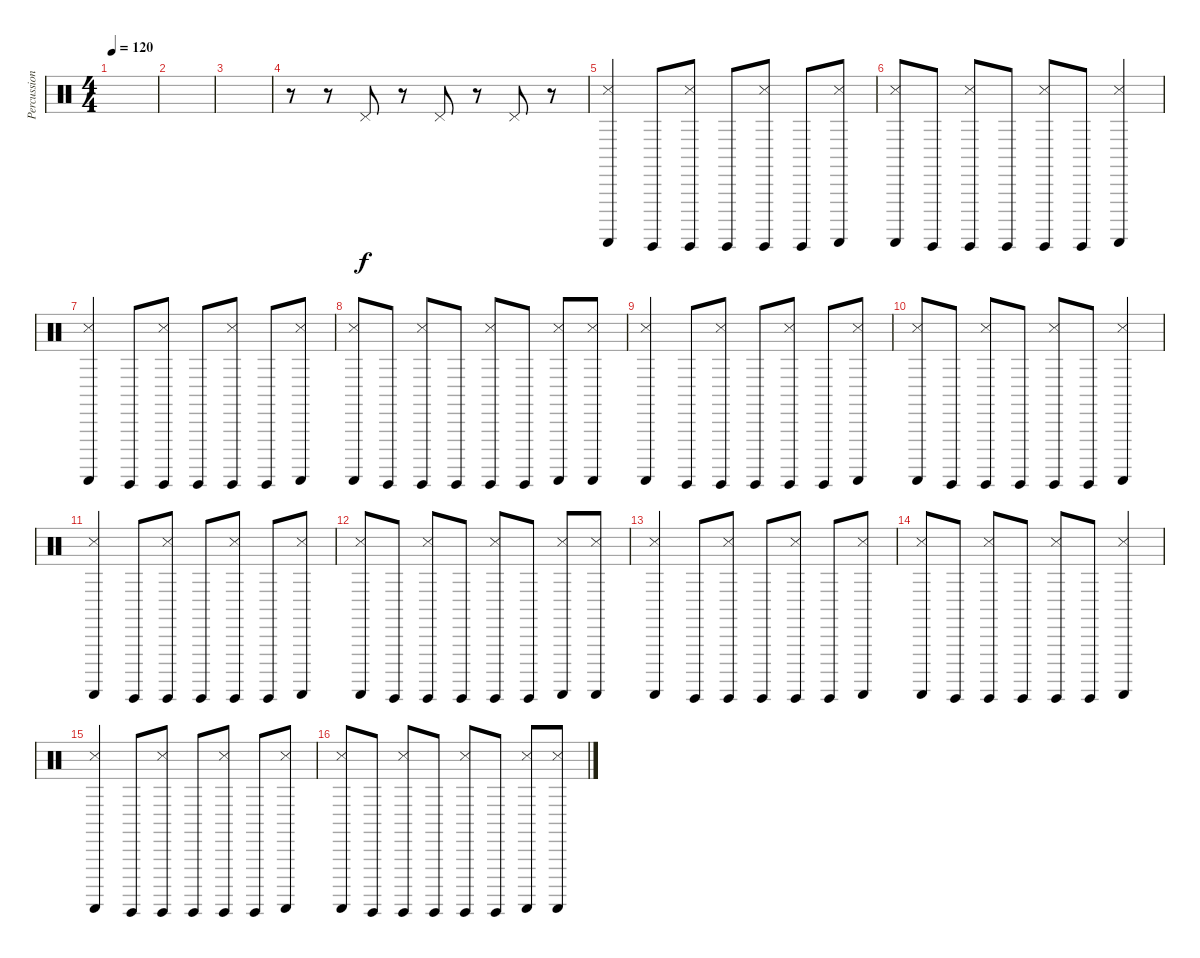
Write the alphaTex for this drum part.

\track ("Percussions" "Percussion") {instrument percussion}
\staff {score}
\articulation defaults
\ts (4 4)
\tempo 120
\clef neutral
\ks c
|
|
|
r.8 r.8 "Pedal Hi-Hat (hit)".8 r.8 "Pedal Hi-Hat (hit)".8 r.8 "Pedal Hi-Hat (hit)".8 r.8 |
("Guiro (scrap-return)" "Snare (side stick) 3").4{dy f} "Guiro (hit)".8 ("Guiro (hit)" "Snare (side stick) 3").8 "Guiro (hit)".8 ("Guiro (hit)" "Snare (side stick) 3").8 "Guiro (hit)".8 ("Guiro (scrap-return)" "Snare (side stick) 3").8 |
("Guiro (scrap-return)" "Snare (side stick) 3").8 "Guiro (hit)".8 ("Guiro (hit)" "Snare (side stick) 3").8 "Guiro (hit)".8 ("Guiro (hit)" "Snare (side stick) 3").8 "Guiro (hit)".8 ("Guiro (scrap-return)" "Snare (side stick) 3").4 |
("Guiro (scrap-return)" "Snare (side stick) 3").4 "Guiro (hit)".8 ("Guiro (hit)" "Snare (side stick) 3").8 "Guiro (hit)".8 ("Guiro (hit)" "Snare (side stick) 3").8 "Guiro (hit)".8 ("Guiro (scrap-return)" "Snare (side stick) 3").8 |
("Guiro (scrap-return)" "Snare (side stick) 3").8 "Guiro (hit)".8 ("Guiro (hit)" "Snare (side stick) 3").8 "Guiro (hit)".8 ("Guiro (hit)" "Snare (side stick) 3").8 "Guiro (hit)".8 ("Guiro (scrap-return)" "Snare (side stick) 3").8 ("Guiro (scrap-return)" "Snare (side stick) 3").8 |
("Guiro (scrap-return)" "Snare (side stick) 3").4 "Guiro (hit)".8 ("Guiro (hit)" "Snare (side stick) 3").8 "Guiro (hit)".8 ("Guiro (hit)" "Snare (side stick) 3").8 "Guiro (hit)".8 ("Guiro (scrap-return)" "Snare (side stick) 3").8 |
("Guiro (scrap-return)" "Snare (side stick) 3").8 "Guiro (hit)".8 ("Guiro (hit)" "Snare (side stick) 3").8 "Guiro (hit)".8 ("Guiro (hit)" "Snare (side stick) 3").8 "Guiro (hit)".8 ("Guiro (scrap-return)" "Snare (side stick) 3").4 |
("Guiro (scrap-return)" "Snare (side stick) 3").4 "Guiro (hit)".8 ("Guiro (hit)" "Snare (side stick) 3").8 "Guiro (hit)".8 ("Guiro (hit)" "Snare (side stick) 3").8 "Guiro (hit)".8 ("Guiro (scrap-return)" "Snare (side stick) 3").8 |
("Guiro (scrap-return)" "Snare (side stick) 3").8 "Guiro (hit)".8 ("Guiro (hit)" "Snare (side stick) 3").8 "Guiro (hit)".8 ("Guiro (hit)" "Snare (side stick) 3").8 "Guiro (hit)".8 ("Guiro (scrap-return)" "Snare (side stick) 3").8 ("Guiro (scrap-return)" "Snare (side stick) 3").8 |
("Guiro (scrap-return)" "Snare (side stick) 3").4 "Guiro (hit)".8 ("Guiro (hit)" "Snare (side stick) 3").8 "Guiro (hit)".8 ("Guiro (hit)" "Snare (side stick) 3").8 "Guiro (hit)".8 ("Guiro (scrap-return)" "Snare (side stick) 3").8 |
("Guiro (scrap-return)" "Snare (side stick) 3").8 "Guiro (hit)".8 ("Guiro (hit)" "Snare (side stick) 3").8 "Guiro (hit)".8 ("Guiro (hit)" "Snare (side stick) 3").8 "Guiro (hit)".8 ("Guiro (scrap-return)" "Snare (side stick) 3").4 |
("Guiro (scrap-return)" "Snare (side stick) 3").4 "Guiro (hit)".8 ("Guiro (hit)" "Snare (side stick) 3").8 "Guiro (hit)".8 ("Guiro (hit)" "Snare (side stick) 3").8 "Guiro (hit)".8 ("Guiro (scrap-return)" "Snare (side stick) 3").8 |
("Guiro (scrap-return)" "Snare (side stick) 3").8 "Guiro (hit)".8 ("Guiro (hit)" "Snare (side stick) 3").8 "Guiro (hit)".8 ("Guiro (hit)" "Snare (side stick) 3").8 "Guiro (hit)".8 ("Guiro (scrap-return)" "Snare (side stick) 3").8 ("Guiro (scrap-return)" "Snare (side stick) 3").8
